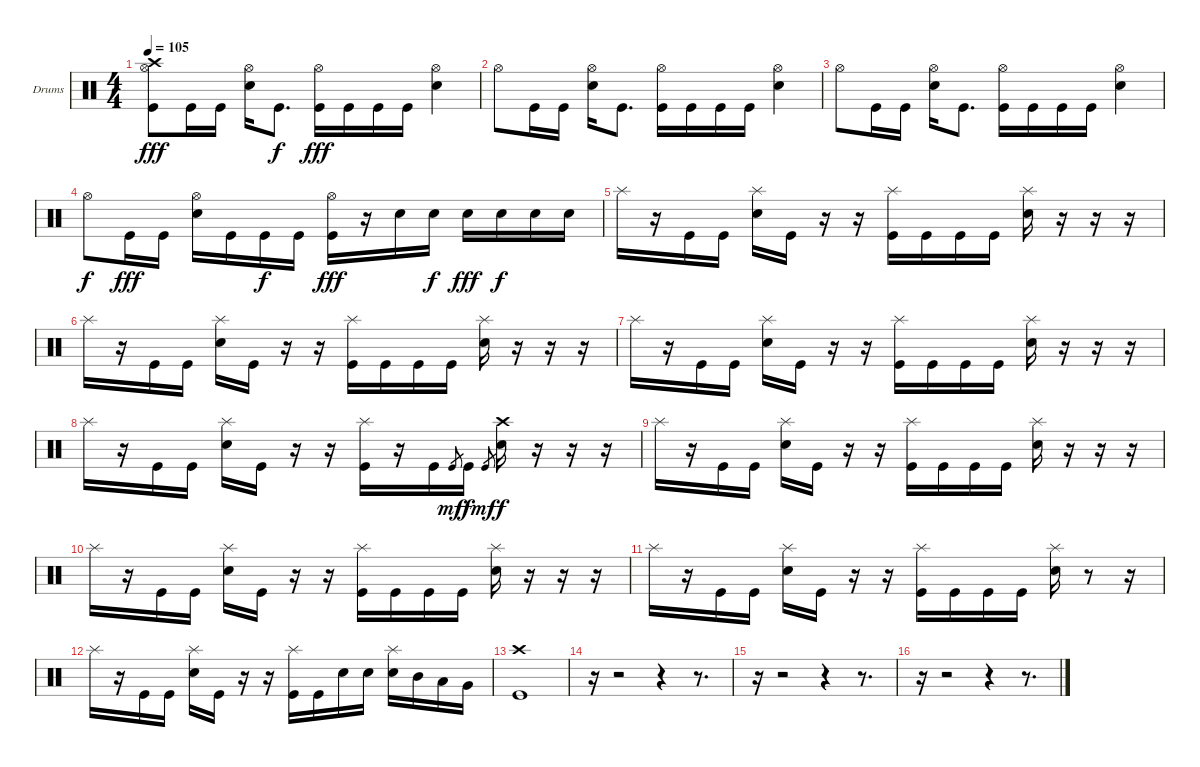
\bracketExtendMode groupsimilarinstruments
\firstSystemTrackNameOrientation horizontal
\otherSystemsTrackNameOrientation horizontal
\track ("Drumkit (Christoph)" "Drums") {instrument percussion}
\staff {score}
\articulation defaults
\ts (4 4)
\tempo 105
\clef neutral
\ks c
("Crash high (hit)" "Kick (hit)" "Hi-Hat (open)").8{dy fff} "Kick (hit)".16 "Kick (hit)".16 ("Hi-Hat (open)" "Snare (hit) 2").16 "Kick (hit)".8{d dy f} ("Hi-Hat (open)" "Kick (hit)").16{dy fff} "Kick (hit)".16 "Kick (hit)".16 "Kick (hit)".16 ("Hi-Hat (open)" "Snare (hit) 2").4 |
"Hi-Hat (open)".8 "Kick (hit)".16 "Kick (hit)".16 ("Hi-Hat (open)" "Snare (hit) 2").16 "Kick (hit)".8{d} ("Hi-Hat (open)" "Kick (hit)").16 "Kick (hit)".16 "Kick (hit)".16 "Kick (hit)".16 ("Hi-Hat (open)" "Snare (hit) 2").4 |
"Hi-Hat (open)".8 "Kick (hit)".16 "Kick (hit)".16 ("Hi-Hat (open)" "Snare (hit) 2").16 "Kick (hit)".8{d} ("Hi-Hat (open)" "Kick (hit)").16 "Kick (hit)".16 "Kick (hit)".16 "Kick (hit)".16 ("Hi-Hat (open)" "Snare (hit) 2").4 |
"Hi-Hat (open)".8{dy f} "Kick (hit)".16{dy fff} "Kick (hit)".16 ("Hi-Hat (open)" "Snare (hit) 2").16 "Kick (hit)".16 "Kick (hit)".16{dy f} "Kick (hit)".16 ("Hi-Hat (open)" "Kick (hit)").16{dy fff} r.16 "Snare (hit) 2".16 "Snare (hit) 2".16{dy f} "Snare (hit) 2".16{dy fff} "Snare (hit) 2".16{dy f} "Snare (hit) 2".16 "Snare (hit) 2".16 |
"Splash (hit)".16 r.16 "Kick (hit)".16 "Kick (hit)".16 ("Splash (hit)" "Snare (hit) 2").16 "Kick (hit)".16 r.16 r.16 ("Splash (hit)" "Kick (hit)").16 "Kick (hit)".16 "Kick (hit)".16 "Kick (hit)".16 ("Splash (hit)" "Snare (hit) 2").16 r.16 r.16 r.16 |
"Splash (hit)".16 r.16 "Kick (hit)".16 "Kick (hit)".16 ("Splash (hit)" "Snare (hit) 2").16 "Kick (hit)".16 r.16 r.16 ("Splash (hit)" "Kick (hit)").16 "Kick (hit)".16 "Kick (hit)".16 "Kick (hit)".16 ("Splash (hit)" "Snare (hit) 2").16 r.16 r.16 r.16 |
"Splash (hit)".16 r.16 "Kick (hit)".16 "Kick (hit)".16 ("Splash (hit)" "Snare (hit) 2").16 "Kick (hit)".16 r.16 r.16 ("Splash (hit)" "Kick (hit)").16 "Kick (hit)".16 "Kick (hit)".16 "Kick (hit)".16 ("Splash (hit)" "Snare (hit) 2").16 r.16 r.16 r.16 |
"Splash (hit)".16 r.16 "Kick (hit)".16 "Kick (hit)".16 ("Splash (hit)" "Snare (hit) 2").16 "Kick (hit)".16 r.16 r.16 ("Splash (hit)" "Kick (hit)").16 r.16 "Kick (hit)".16 "Kick (hit)".8{gr dy mf} "Kick (hit)".16{dy f} "Kick (hit)".8{gr dy mf} ("Crash high (hit)" "Snare (hit) 2").16{dy f} r.16 r.16 r.16 |
"Splash (hit)".16 r.16 "Kick (hit)".16 "Kick (hit)".16 ("Splash (hit)" "Snare (hit) 2").16 "Kick (hit)".16 r.16 r.16 ("Splash (hit)" "Kick (hit)").16 "Kick (hit)".16 "Kick (hit)".16 "Kick (hit)".16 ("Splash (hit)" "Snare (hit) 2").16 r.16 r.16 r.16 |
"Splash (hit)".16 r.16 "Kick (hit)".16 "Kick (hit)".16 ("Splash (hit)" "Snare (hit) 2").16 "Kick (hit)".16 r.16 r.16 ("Splash (hit)" "Kick (hit)").16 "Kick (hit)".16 "Kick (hit)".16 "Kick (hit)".16 ("Splash (hit)" "Snare (hit) 2").16 r.16 r.16 r.16 |
"Splash (hit)".16 r.16 "Kick (hit)".16 "Kick (hit)".16 ("Splash (hit)" "Snare (hit) 2").16 "Kick (hit)".16 r.16 r.16 ("Splash (hit)" "Kick (hit)").16 "Kick (hit)".16 "Kick (hit)".16 "Kick (hit)".16 ("Splash (hit)" "Snare (hit) 2").16 r.8 r.16 |
"Splash (hit)".16 r.16 "Kick (hit)".16 "Kick (hit)".16 ("Splash (hit)" "Snare (hit) 2").16 "Kick (hit)".16 r.16 r.16 ("Splash (hit)" "Kick (hit)").16 "Kick (hit)".16 "Snare (hit) 2".16 "Snare (hit) 2".16 ("Splash (hit)" "Snare (hit) 2").16 "Mid Tom (hit)".16 "Low Tom (hit)".16 "Very Low Tom (hit)".16 |
("Crash high (hit)" "Kick (hit)").1 |
r.16 r.2 r.4 r.8{d} |
r.16 r.2 r.4 r.8{d} |
r.16 r.2 r.4 r.8{d}
